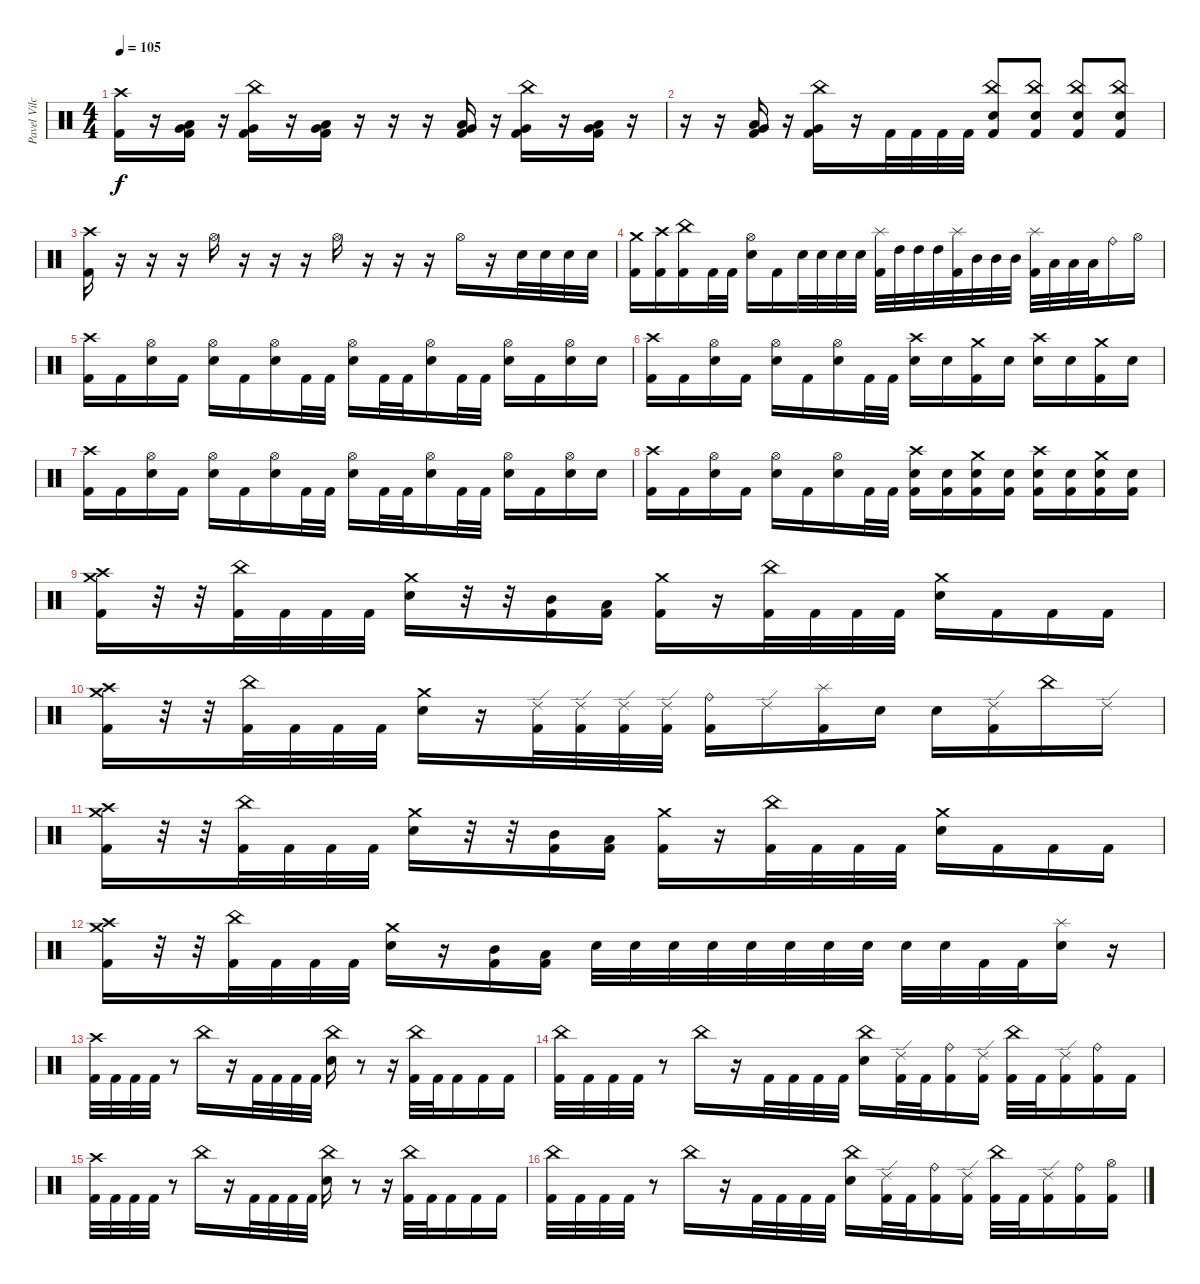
\track ("Pavel Vilchytski" "Pavel Vilc") {instrument percussion}
\staff {score}
\articulation defaults
\ts (4 4)
\tempo 105
\clef neutral
\ks c
("Crash high (hit)" "Kick (hit) 2").16{dy f} r.16 ("Low Tom (hit)" "Very Low Tom (hit)" "Kick (hit) 2").16 r.16 ("China (hit)" "Very Low Tom (hit)" "Kick (hit) 2").16 r.16 ("Low Tom (hit)" "Very Low Tom (hit)" "Kick (hit) 2").16 r.16 r.16 r.16 ("Low Tom (hit)" "Very Low Tom (hit)" "Kick (hit) 2").16 r.16 ("China (hit)" "Very Low Tom (hit)" "Kick (hit) 2").16 r.16 ("Low Tom (hit)" "Very Low Tom (hit)" "Kick (hit) 2").16 r.16 |
r.16 r.16 ("Low Tom (hit)" "Very Low Tom (hit)" "Kick (hit) 2").16 r.16 ("China (hit)" "Very Low Tom (hit)" "Kick (hit) 2").16 r.16 "Kick (hit) 2".32 "Kick (hit) 2".32 "Kick (hit) 2".32 "Kick (hit) 2".32 ("China (hit)" "Electric Snare (hit)" "Kick (hit) 2").8 ("China (hit)" "Electric Snare (hit)" "Kick (hit) 2").8 ("China (hit)" "Electric Snare (hit)" "Kick (hit) 2").8 ("China (hit)" "Electric Snare (hit)" "Kick (hit) 2").8 |
("Crash high (hit)" "Kick (hit) 2").16 r.16 r.16 r.16 "Hi-Hat (open)".16 r.16 r.16 r.16 "Hi-Hat (open)".16 r.16 r.16 r.16 "Hi-Hat (open)".16 r.16 "Electric Snare (hit)".32 "Electric Snare (hit)".32 "Electric Snare (hit)".32 "Electric Snare (hit)".32 |
("Crash medium (hit)" "Kick (hit) 2").16 ("Crash high (hit)" "Kick (hit) 2").16 ("China (hit)" "Kick (hit) 2").16 "Kick (hit) 2".32 "Kick (hit) 2".32 ("Hi-Hat (open)" "Electric Snare (hit)").16 "Kick (hit) 2".16 "Electric Snare (hit)".32 "Electric Snare (hit)".32 "Electric Snare (hit)".32 "Electric Snare (hit)".32 ("Splash (hit)" "Kick (hit) 2").32 "High Tom (hit)".32 "High Tom (hit)".32 "High Tom (hit)".32 ("Splash (hit)" "Kick (hit) 2").32 "Mid Tom (hit)".32 "Mid Tom (hit)".32 "Mid Tom (hit)".32 ("Splash (hit)" "Kick (hit) 2").32 "Low Tom (hit)".32 "Low Tom (hit)".32 "Low Tom (hit)".32 "Ride (bell)".16 "Hi-Hat (open)".16 |
("Crash high (hit)" "Kick (hit) 2").16 "Kick (hit) 2".16 ("Hi-Hat (open)" "Electric Snare (hit)").16 "Kick (hit) 2".16 ("Hi-Hat (open)" "Electric Snare (hit)").16 "Kick (hit) 2".16 ("Hi-Hat (open)" "Electric Snare (hit)").16 "Kick (hit) 2".32 "Kick (hit) 2".32 ("Hi-Hat (open)" "Electric Snare (hit)").16 "Kick (hit) 2".32 "Kick (hit) 2".32 ("Hi-Hat (open)" "Electric Snare (hit)").16 "Kick (hit) 2".32 "Kick (hit) 2".32 ("Hi-Hat (open)" "Electric Snare (hit)").16 "Kick (hit) 2".16 ("Hi-Hat (open)" "Electric Snare (hit)").16 "Electric Snare (hit)".16 |
("Crash high (hit)" "Kick (hit) 2").16 "Kick (hit) 2".16 ("Hi-Hat (open)" "Electric Snare (hit)").16 "Kick (hit) 2".16 ("Hi-Hat (open)" "Electric Snare (hit)").16 "Kick (hit) 2".16 ("Hi-Hat (open)" "Electric Snare (hit)").16 "Kick (hit) 2".32 "Kick (hit) 2".32 ("Crash high (hit)" "Electric Snare (hit)").16 "Electric Snare (hit)".16 ("Crash medium (hit)" "Kick (hit) 2").16 "Electric Snare (hit)".16 ("Crash high (hit)" "Electric Snare (hit)").16 "Electric Snare (hit)".16 ("Crash medium (hit)" "Kick (hit) 2").16 "Electric Snare (hit)".16 |
("Crash high (hit)" "Kick (hit) 2").16 "Kick (hit) 2".16 ("Hi-Hat (open)" "Electric Snare (hit)").16 "Kick (hit) 2".16 ("Hi-Hat (open)" "Electric Snare (hit)").16 "Kick (hit) 2".16 ("Hi-Hat (open)" "Electric Snare (hit)").16 "Kick (hit) 2".32 "Kick (hit) 2".32 ("Hi-Hat (open)" "Electric Snare (hit)").16 "Kick (hit) 2".32 "Kick (hit) 2".32 ("Hi-Hat (open)" "Electric Snare (hit)").16 "Kick (hit) 2".32 "Kick (hit) 2".32 ("Hi-Hat (open)" "Electric Snare (hit)").16 "Kick (hit) 2".16 ("Hi-Hat (open)" "Electric Snare (hit)").16 "Electric Snare (hit)".16 |
("Crash high (hit)" "Kick (hit) 2").16 "Kick (hit) 2".16 ("Hi-Hat (open)" "Electric Snare (hit)").16 "Kick (hit) 2".16 ("Hi-Hat (open)" "Electric Snare (hit)").16 "Kick (hit) 2".16 ("Hi-Hat (open)" "Electric Snare (hit)").16 "Kick (hit) 2".32 "Kick (hit) 2".32 ("Crash high (hit)" "Electric Snare (hit)" "Kick (hit) 2").16 ("Electric Snare (hit)" "Kick (hit) 2").16 ("Crash medium (hit)" "Electric Snare (hit)" "Kick (hit) 2").16 ("Electric Snare (hit)" "Kick (hit) 2").16 ("Crash high (hit)" "Electric Snare (hit)" "Kick (hit) 2").16 ("Electric Snare (hit)" "Kick (hit) 2").16 ("Crash medium (hit)" "Electric Snare (hit)" "Kick (hit) 2").16 ("Electric Snare (hit)" "Kick (hit) 2").16 |
("Crash high (hit)" "Crash medium (hit)" "Kick (hit) 2").16 r.32 r.32 ("China (hit)" "Kick (hit) 2").32 "Kick (hit) 2".32 "Kick (hit) 2".32 "Kick (hit) 2".32 ("Crash medium (hit)" "Electric Snare (hit)").16 r.32 r.32 ("Mid Tom (hit)" "Kick (hit) 2").16 ("Low Tom (hit)" "Kick (hit) 2").16 ("Crash medium (hit)" "Kick (hit) 2").16 r.16 ("China (hit)" "Kick (hit) 2").32 "Kick (hit) 2".32 "Kick (hit) 2".32 "Kick (hit) 2".32 ("Crash medium (hit)" "Electric Snare (hit)").16 "Kick (hit) 2".16 "Kick (hit) 2".16 "Kick (hit) 2".16 |
("Crash high (hit)" "Crash medium (hit)" "Kick (hit) 2").16 r.32 r.32 ("China (hit)" "Kick (hit) 2").32 "Kick (hit) 2".32 "Kick (hit) 2".32 "Kick (hit) 2".32 ("Crash medium (hit)" "Electric Snare (hit)").16 r.16 ("Ride (edge) 2" "Kick (hit) 2").32 ("Ride (edge) 2" "Kick (hit) 2").32 ("Ride (edge) 2" "Kick (hit) 2").32 ("Ride (edge) 2" "Kick (hit) 2").32 ("Ride (bell)" "Kick (hit) 2").16 "Ride (edge) 2".16 ("Splash (hit)" "Kick (hit) 2").16 "Electric Snare (hit)".16 "Electric Snare (hit)".16 ("Ride (edge) 2" "Kick (hit) 2").16 "China (hit)".16 "Ride (edge) 2".16 |
("Crash high (hit)" "Crash medium (hit)" "Kick (hit) 2").16 r.32 r.32 ("China (hit)" "Kick (hit) 2").32 "Kick (hit) 2".32 "Kick (hit) 2".32 "Kick (hit) 2".32 ("Crash medium (hit)" "Electric Snare (hit)").16 r.32 r.32 ("Mid Tom (hit)" "Kick (hit) 2").16 ("Low Tom (hit)" "Kick (hit) 2").16 ("Crash medium (hit)" "Kick (hit) 2").16 r.16 ("China (hit)" "Kick (hit) 2").32 "Kick (hit) 2".32 "Kick (hit) 2".32 "Kick (hit) 2".32 ("Crash medium (hit)" "Electric Snare (hit)").16 "Kick (hit) 2".16 "Kick (hit) 2".16 "Kick (hit) 2".16 |
("Crash high (hit)" "Crash medium (hit)" "Kick (hit) 2").16 r.32 r.32 ("China (hit)" "Kick (hit) 2").32 "Kick (hit) 2".32 "Kick (hit) 2".32 "Kick (hit) 2".32 ("Crash medium (hit)" "Electric Snare (hit)").16 r.16 ("Mid Tom (hit)" "Kick (hit) 2").16 ("Low Tom (hit)" "Kick (hit) 2").16 "Electric Snare (hit)".32 "Electric Snare (hit)".32 "Electric Snare (hit)".32 "Electric Snare (hit)".32 "Electric Snare (hit)".32 "Electric Snare (hit)".32 "Electric Snare (hit)".32 "Electric Snare (hit)".32 "Electric Snare (hit)".32 "Electric Snare (hit)".32 "Kick (hit) 2".32 "Kick (hit) 2".32 ("Splash (hit)" "Electric Snare (hit)").16 r.16 |
("Crash high (hit)" "Kick (hit) 2").32 "Kick (hit) 2".32 "Kick (hit) 2".32 "Kick (hit) 2".32 r.8 "China (hit)".16 r.16 "Kick (hit) 2".32 "Kick (hit) 2".32 "Kick (hit) 2".32 "Kick (hit) 2".32 ("China (hit)" "Electric Snare (hit)").16 r.8 r.16 ("China (hit)" "Kick (hit) 2").32 "Kick (hit) 2".32 "Kick (hit) 2".16 "Kick (hit) 2".16 "Kick (hit) 2".16 |
("China (hit)" "Kick (hit) 2").32 "Kick (hit) 2".32 "Kick (hit) 2".32 "Kick (hit) 2".32 r.8 "China (hit)".16 r.16 "Kick (hit) 2".32 "Kick (hit) 2".32 "Kick (hit) 2".32 "Kick (hit) 2".32 ("China (hit)" "Electric Snare (hit)").16 ("Ride (edge) 2" "Kick (hit) 2").32 "Kick (hit) 2".32 ("Ride (bell)" "Kick (hit) 2").16 ("Ride (edge) 2" "Kick (hit) 2").16 ("China (hit)" "Kick (hit) 2").32 "Kick (hit) 2".32 ("Ride (edge) 2" "Kick (hit) 2").16 ("Ride (bell)" "Kick (hit) 2").16 "Kick (hit) 2".16 |
("Crash high (hit)" "Kick (hit) 2").32 "Kick (hit) 2".32 "Kick (hit) 2".32 "Kick (hit) 2".32 r.8 "China (hit)".16 r.16 "Kick (hit) 2".32 "Kick (hit) 2".32 "Kick (hit) 2".32 "Kick (hit) 2".32 ("China (hit)" "Electric Snare (hit)").16 r.8 r.16 ("China (hit)" "Kick (hit) 2").32 "Kick (hit) 2".32 "Kick (hit) 2".16 "Kick (hit) 2".16 "Kick (hit) 2".16 |
("China (hit)" "Kick (hit) 2").32 "Kick (hit) 2".32 "Kick (hit) 2".32 "Kick (hit) 2".32 r.8 "China (hit)".16 r.16 "Kick (hit) 2".32 "Kick (hit) 2".32 "Kick (hit) 2".32 "Kick (hit) 2".32 ("China (hit)" "Electric Snare (hit)").16 ("Ride (edge) 2" "Kick (hit) 2").32 "Kick (hit) 2".32 ("Ride (bell)" "Kick (hit) 2").16 ("Ride (edge) 2" "Kick (hit) 2").16 ("China (hit)" "Kick (hit) 2").32 "Kick (hit) 2".32 ("Ride (edge) 2" "Kick (hit) 2").16 ("Ride (bell)" "Kick (hit) 2").16 ("Hi-Hat (open)" "Kick (hit) 2").16
